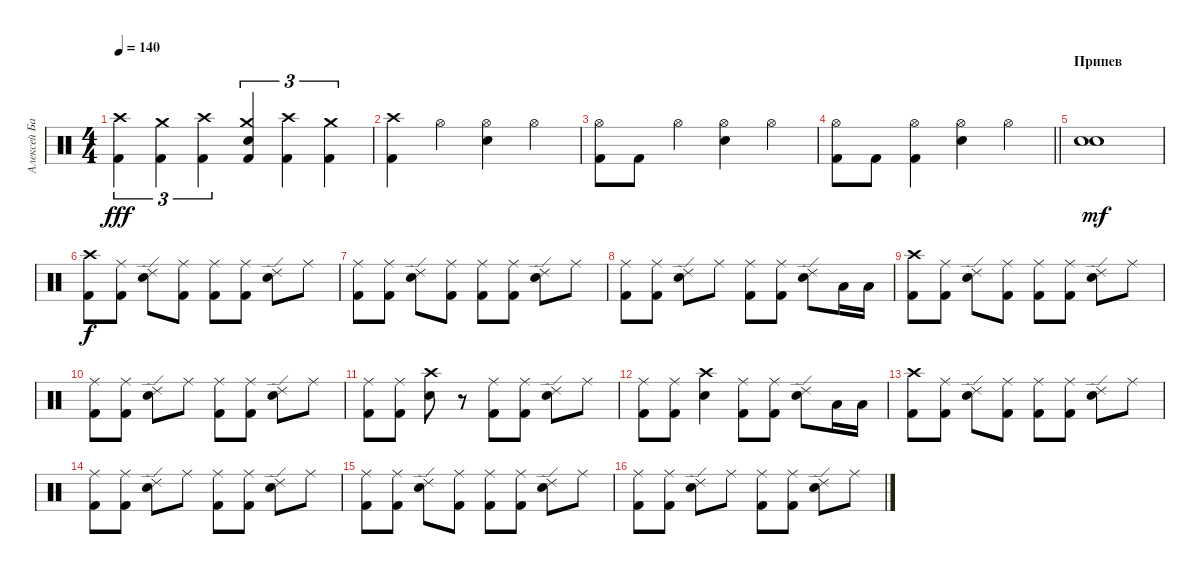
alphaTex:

\track ("Алексей Барзилович" "Алексей Ба") {instrument percussion}
\staff {score}
\articulation defaults
\ts (4 4)
\tempo 140
\clef neutral
\ks c
("Crash high (hit)" "Kick (hit) 2").4{tu (3 2) dy fff} ("Crash medium (hit)" "Kick (hit) 2").4{tu (3 2)} ("Crash high (hit)" "Kick (hit) 2").4{tu (3 2)} ("Crash medium (hit)" "Electric Snare (hit)" "Kick (hit) 2").4{tu (3 2)} ("Crash high (hit)" "Kick (hit) 2").4{tu (3 2)} ("Crash medium (hit)" "Kick (hit) 2").4{tu (3 2)} |
("Crash high (hit)" "Kick (hit) 2").4 "Hi-Hat (open)".4 ("Hi-Hat (open)" "Electric Snare (hit)").4 "Hi-Hat (open)".4 |
("Hi-Hat (open)" "Kick (hit) 2").8 "Kick (hit) 2".8 "Hi-Hat (open)".4 ("Hi-Hat (open)" "Electric Snare (hit)").4 "Hi-Hat (open)".4 |
\barLineRight lightlight
("Hi-Hat (open)" "Kick (hit) 2").8 "Kick (hit) 2".8 ("Hi-Hat (open)" "Kick (hit) 2").4 ("Hi-Hat (open)" "Electric Snare (hit)").4 "Hi-Hat (open)".4 |
\section ("" "Припев")
("Electric Snare (hit)" "Electric Snare (hit)").1{dy mf} |
("Crash high (hit)" "Kick (hit) 2").8{dy f} ("Ride (middle)" "Kick (hit) 2").8 ("Ride (edge) 2" "Electric Snare (hit)").8 ("Ride (middle)" "Kick (hit) 2").8 ("Ride (middle)" "Kick (hit) 2").8 ("Ride (middle)" "Kick (hit) 2").8 ("Ride (edge) 2" "Electric Snare (hit)").8 "Ride (middle)".8 |
("Ride (middle)" "Kick (hit) 2").8 ("Ride (middle)" "Kick (hit) 2").8 ("Ride (edge) 2" "Electric Snare (hit)").8 ("Ride (middle)" "Kick (hit) 2").8 ("Ride (middle)" "Kick (hit) 2").8 ("Ride (middle)" "Kick (hit) 2").8 ("Ride (edge) 2" "Electric Snare (hit)").8 "Ride (middle)".8 |
("Ride (middle)" "Kick (hit) 2").8 ("Ride (middle)" "Kick (hit) 2").8 ("Ride (edge) 2" "Electric Snare (hit)").8 "Ride (middle)".8 ("Ride (middle)" "Kick (hit) 2").8 ("Ride (middle)" "Kick (hit) 2").8 ("Ride (edge) 2" "Electric Snare (hit)").8 "Low Tom (hit)".16 "Low Tom (hit)".16 |
("Crash high (hit)" "Kick (hit) 2").8 ("Ride (middle)" "Kick (hit) 2").8 ("Ride (edge) 2" "Electric Snare (hit)").8 ("Ride (middle)" "Kick (hit) 2").8 ("Ride (middle)" "Kick (hit) 2").8 ("Ride (middle)" "Kick (hit) 2").8 ("Ride (edge) 2" "Electric Snare (hit)").8 "Ride (middle)".8 |
("Ride (middle)" "Kick (hit) 2").8 ("Ride (middle)" "Kick (hit) 2").8 ("Ride (edge) 2" "Electric Snare (hit)").8 "Ride (middle)".8 ("Ride (middle)" "Kick (hit) 2").8 ("Ride (middle)" "Kick (hit) 2").8 ("Ride (edge) 2" "Electric Snare (hit)").8 "Ride (middle)".8 |
("Ride (middle)" "Kick (hit) 2").8 ("Ride (middle)" "Kick (hit) 2").8 ("Crash high (hit)" "Electric Snare (hit)").8 r.8 ("Ride (middle)" "Kick (hit) 2").8 ("Ride (middle)" "Kick (hit) 2").8 ("Ride (edge) 2" "Electric Snare (hit)").8 "Ride (middle)".8 |
("Ride (middle)" "Kick (hit) 2").8 ("Ride (middle)" "Kick (hit) 2").8 ("Crash high (hit)" "Electric Snare (hit)").4 ("Ride (middle)" "Kick (hit) 2").8 ("Ride (middle)" "Kick (hit) 2").8 ("Ride (edge) 2" "Electric Snare (hit)").8 "Low Tom (hit)".16 "Low Tom (hit)".16 |
("Crash high (hit)" "Kick (hit) 2").8 ("Ride (middle)" "Kick (hit) 2").8 ("Ride (edge) 2" "Electric Snare (hit)").8 ("Ride (middle)" "Kick (hit) 2").8 ("Ride (middle)" "Kick (hit) 2").8 ("Ride (middle)" "Kick (hit) 2").8 ("Ride (edge) 2" "Electric Snare (hit)").8 "Ride (middle)".8 |
("Ride (middle)" "Kick (hit) 2").8 ("Ride (middle)" "Kick (hit) 2").8 ("Ride (edge) 2" "Electric Snare (hit)").8 "Ride (middle)".8 ("Ride (middle)" "Kick (hit) 2").8 ("Ride (middle)" "Kick (hit) 2").8 ("Ride (edge) 2" "Electric Snare (hit)").8 "Ride (middle)".8 |
("Ride (middle)" "Kick (hit) 2").8 ("Ride (middle)" "Kick (hit) 2").8 ("Ride (edge) 2" "Electric Snare (hit)").8 ("Ride (middle)" "Kick (hit) 2").8 ("Ride (middle)" "Kick (hit) 2").8 ("Ride (middle)" "Kick (hit) 2").8 ("Ride (edge) 2" "Electric Snare (hit)").8 "Ride (middle)".8 |
("Ride (middle)" "Kick (hit) 2").8 ("Ride (middle)" "Kick (hit) 2").8 ("Ride (edge) 2" "Electric Snare (hit)").8 "Ride (middle)".8 ("Ride (middle)" "Kick (hit) 2").8 ("Ride (middle)" "Kick (hit) 2").8 ("Ride (edge) 2" "Electric Snare (hit)").8 "Ride (middle)".8
